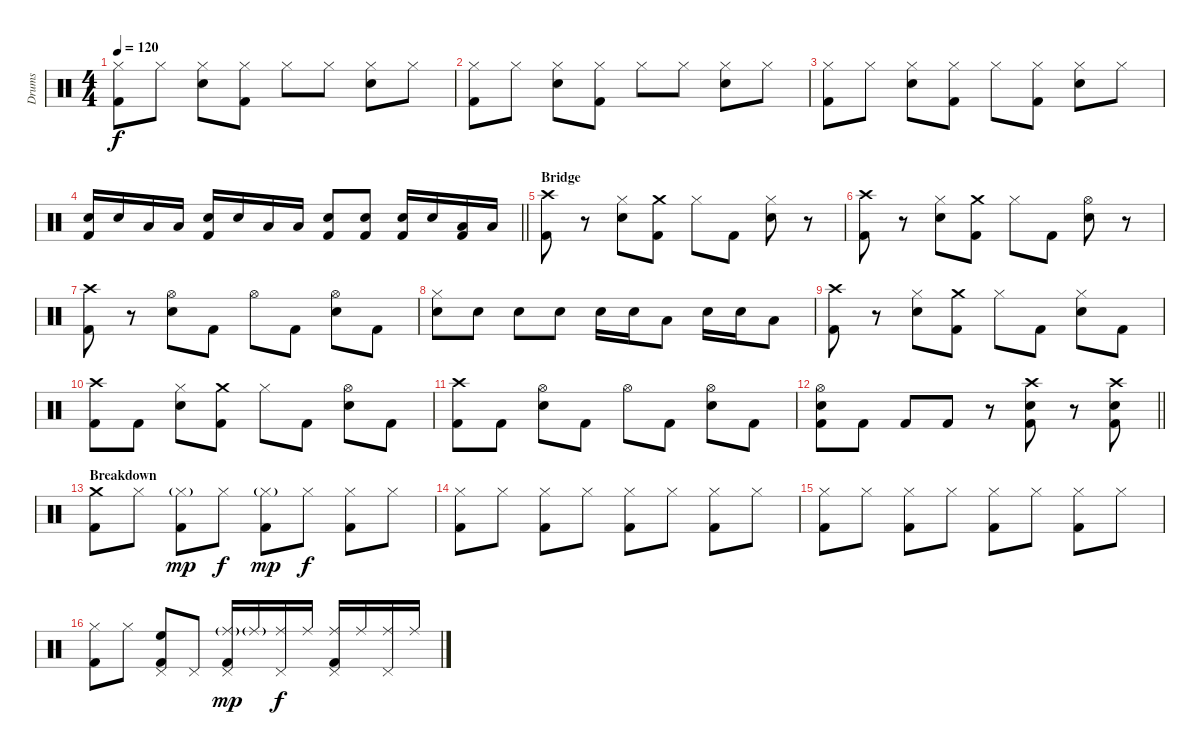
\track ("Drums" "Drums") {instrument percussion}
\staff {score}
\articulation defaults
\ts (4 4)
\tempo 120
\clef neutral
\ks c
("Hi-Hat (closed)" "Kick (hit) 2").8{dy f} "Hi-Hat (closed)".8 ("Hi-Hat (closed)" "Electric Snare (hit)").8 ("Hi-Hat (closed)" "Kick (hit) 2").8 "Hi-Hat (closed)".8 "Hi-Hat (closed)".8 ("Hi-Hat (closed)" "Electric Snare (hit)").8 "Hi-Hat (closed)".8 |
("Hi-Hat (closed)" "Kick (hit) 2").8 "Hi-Hat (closed)".8 ("Hi-Hat (closed)" "Electric Snare (hit)").8 ("Hi-Hat (closed)" "Kick (hit) 2").8 "Hi-Hat (closed)".8 "Hi-Hat (closed)".8 ("Hi-Hat (closed)" "Electric Snare (hit)").8 "Hi-Hat (closed)".8 |
("Hi-Hat (closed)" "Kick (hit) 2").8 "Hi-Hat (closed)".8 ("Hi-Hat (closed)" "Electric Snare (hit)").8 ("Hi-Hat (closed)" "Kick (hit) 2").8 "Hi-Hat (closed)".8 ("Hi-Hat (closed)" "Kick (hit) 2").8 ("Hi-Hat (closed)" "Electric Snare (hit)").8 "Hi-Hat (closed)".8 |
\barLineRight lightlight
("Electric Snare (hit)" "Kick (hit) 2").16 "Electric Snare (hit)".16 "Low Tom (hit)".16 "Low Tom (hit)".16 ("Electric Snare (hit)" "Kick (hit) 2").16 "Electric Snare (hit)".16 "Low Tom (hit)".16 "Low Tom (hit)".16 ("Electric Snare (hit)" "Kick (hit) 2").8 ("Electric Snare (hit)" "Kick (hit) 2").8 ("Electric Snare (hit)" "Kick (hit) 2").16 "Electric Snare (hit)".16 ("Low Tom (hit)" "Kick (hit) 2").16 "Low Tom (hit)".16 |
\section ("" "Bridge")
("Crash high (hit)" "Kick (hit) 2").8 r.8 ("Hi-Hat (closed)" "Electric Snare (hit)").8 ("Crash medium (hit)" "Kick (hit) 2").8 "Hi-Hat (closed)".8 "Kick (hit) 2".8 ("Hi-Hat (closed)" "Electric Snare (hit)").8 r.8 |
("Crash high (hit)" "Kick (hit) 2").8 r.8 ("Hi-Hat (closed)" "Electric Snare (hit)").8 ("Crash medium (hit)" "Kick (hit) 2").8 "Hi-Hat (closed)".8 "Kick (hit) 2".8 ("Hi-Hat (open)" "Electric Snare (hit)").8 r.8 |
("Crash high (hit)" "Kick (hit) 2").8 r.8 ("Hi-Hat (open)" "Electric Snare (hit)").8 "Kick (hit) 2".8 "Hi-Hat (open)".8 "Kick (hit) 2".8 ("Hi-Hat (open)" "Electric Snare (hit)").8 "Kick (hit) 2".8 |
("Hi-Hat (closed)" "Electric Snare (hit)").8 "Electric Snare (hit)".8 "Electric Snare (hit)".8 "Electric Snare (hit)".8 "Electric Snare (hit)".16 "Electric Snare (hit)".16 "Low Tom (hit)".8 "Electric Snare (hit)".16 "Electric Snare (hit)".16 "Low Tom (hit)".8 |
("Crash high (hit)" "Kick (hit) 2").8 r.8 ("Hi-Hat (closed)" "Electric Snare (hit)").8 ("Crash medium (hit)" "Kick (hit) 2").8 "Hi-Hat (closed)".8 "Kick (hit) 2".8 ("Hi-Hat (closed)" "Electric Snare (hit)").8 "Kick (hit) 2".8 |
("Crash high (hit)" "Kick (hit) 2").8 "Kick (hit) 2".8 ("Hi-Hat (closed)" "Electric Snare (hit)").8 ("Crash medium (hit)" "Kick (hit) 2").8 "Hi-Hat (closed)".8 "Kick (hit) 2".8 ("Hi-Hat (open)" "Electric Snare (hit)").8 "Kick (hit) 2".8 |
("Crash high (hit)" "Kick (hit) 2").8 "Kick (hit) 2".8 ("Hi-Hat (open)" "Electric Snare (hit)").8 "Kick (hit) 2".8 "Hi-Hat (open)".8 "Kick (hit) 2".8 ("Hi-Hat (open)" "Electric Snare (hit)").8 "Kick (hit) 2".8 |
\barLineRight lightlight
("Hi-Hat (open)" "Electric Snare (hit)" "Kick (hit) 2").8 "Kick (hit) 2".8 "Kick (hit) 2".8 "Kick (hit) 2".8 r.8 ("Crash high (hit)" "Electric Snare (hit)" "Kick (hit) 2").8 r.8 ("Crash high (hit)" "Electric Snare (hit)" "Kick (hit) 2").8 |
\section ("" "Breakdown")
("Crash medium (hit)" "Kick (hit) 2").8 "Hi-Hat (closed)".8 ("Hi-Hat (closed)"{g} "Kick (hit) 2").8{dy mp} "Hi-Hat (closed)".8{dy f} ("Hi-Hat (closed)"{g} "Kick (hit) 2").8{dy mp} "Hi-Hat (closed)".8{dy f} ("Hi-Hat (closed)" "Kick (hit) 2").8 "Hi-Hat (closed)".8 |
("Hi-Hat (closed)" "Kick (hit) 2").8 "Hi-Hat (closed)".8 ("Hi-Hat (closed)" "Kick (hit) 2").8 "Hi-Hat (closed)".8 ("Hi-Hat (closed)" "Kick (hit) 2").8 "Hi-Hat (closed)".8 ("Hi-Hat (closed)" "Kick (hit) 2").8 "Hi-Hat (closed)".8 |
("Hi-Hat (closed)" "Kick (hit) 2").8 "Hi-Hat (closed)".8 ("Hi-Hat (closed)" "Kick (hit) 2").8 "Hi-Hat (closed)".8 ("Hi-Hat (closed)" "Kick (hit) 2").8 "Hi-Hat (closed)".8 ("Hi-Hat (closed)" "Kick (hit) 2").8 "Hi-Hat (closed)".8 |
("Hi-Hat (closed)" "Kick (hit) 2").8 "Hi-Hat (closed)".8 ("Pedal Hi-Hat (hit)" "High Floor Tom (hit)" "Kick (hit) 2").8 "Pedal Hi-Hat (hit)".8 ("Ride (middle)"{g} "Pedal Hi-Hat (hit)" "Kick (hit) 2").16{dy mp} "Ride (middle)"{g}.16 ("Ride (middle)" "Pedal Hi-Hat (hit)").16{dy f} "Ride (middle)".16 ("Ride (middle)" "Pedal Hi-Hat (hit)" "Kick (hit) 2").16 "Ride (middle)".16 ("Ride (middle)" "Pedal Hi-Hat (hit)").16 "Ride (middle)".16
